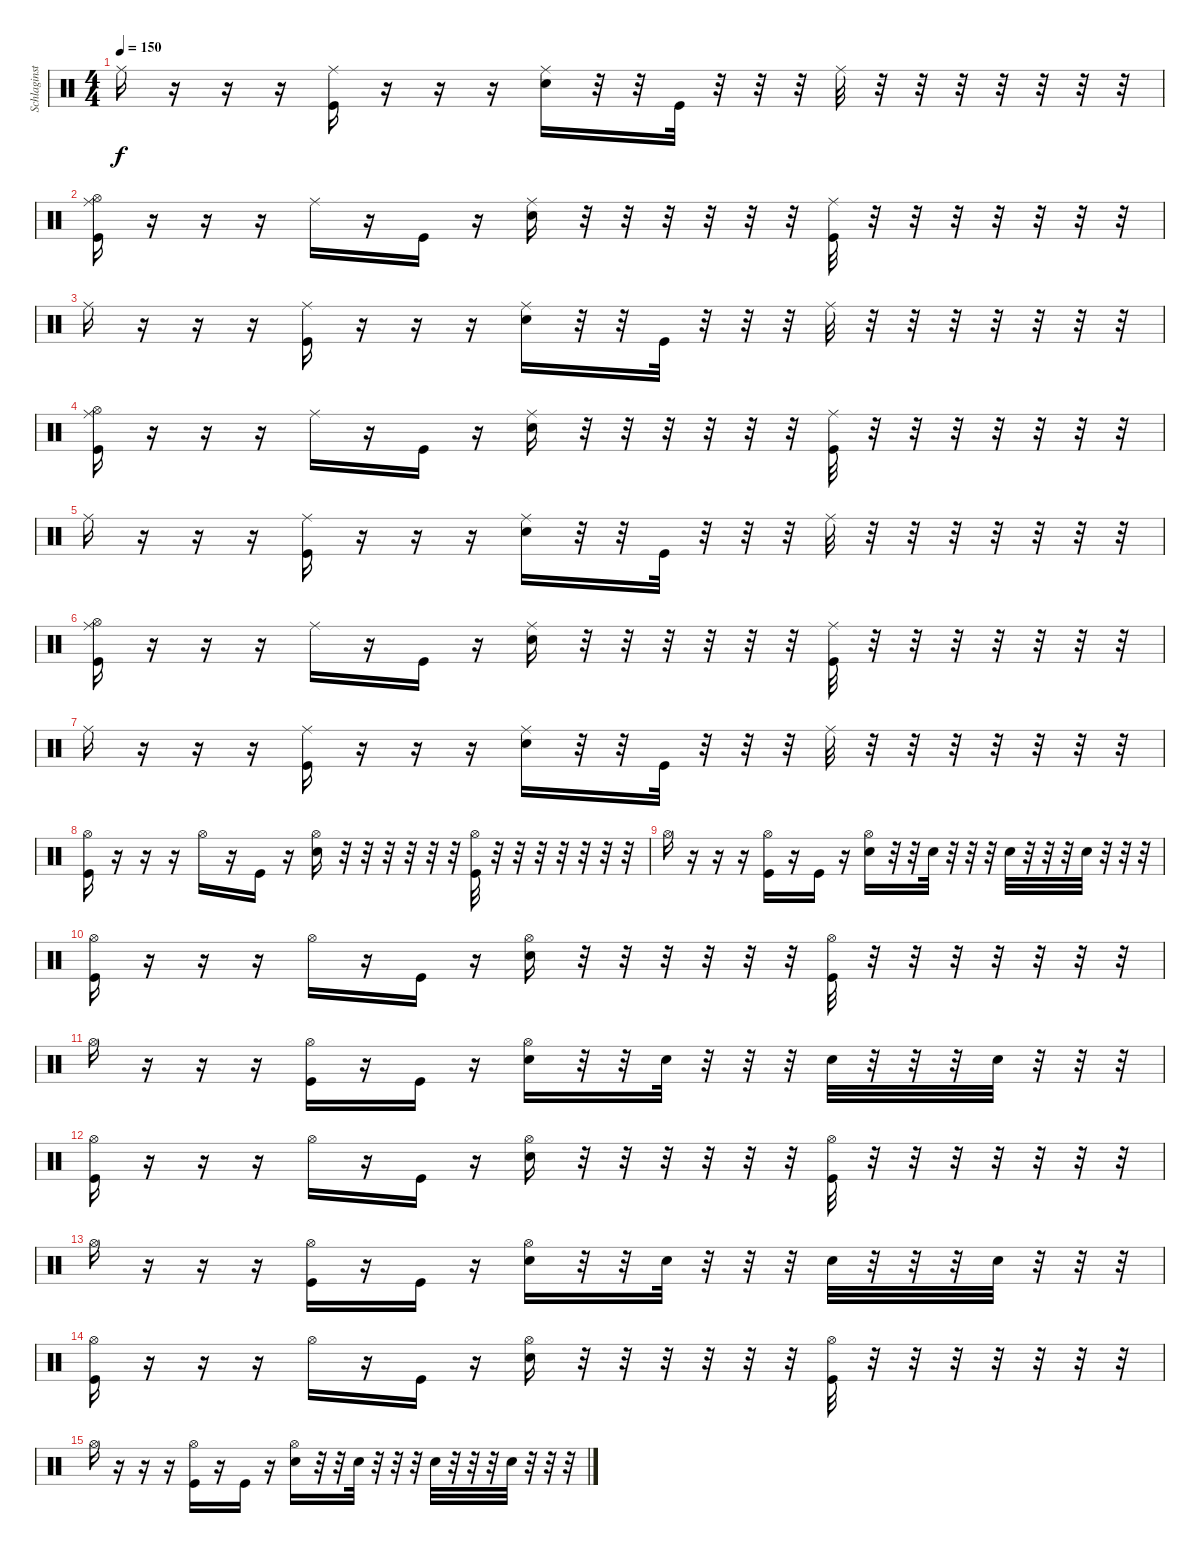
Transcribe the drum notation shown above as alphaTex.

\track ("Schlaginstrumente - Auswahl" "Schlaginst") {instrument percussion}
\staff {score}
\articulation defaults
\ts (4 4)
\tempo 150
\clef neutral
\ks c "Ride (middle)".16{dy f}
r.16 r.16 r.16 ("Kick (hit)" "Ride (middle)").16 r.16 r.16 r.16 ("Electric Snare (hit)" "Ride (middle)").16 r.32 r.32 "Kick (hit)".32 r.32 r.32 r.32 "Ride (middle)".32 r.32 r.32 r.32 r.32 r.32 r.32 r.32 |
("Kick (hit)" "Hi-Hat (open)" "Ride (middle)").16 r.16 r.16 r.16 "Ride (middle)".16 r.16 "Kick (hit)".16 r.16 ("Electric Snare (hit)" "Ride (middle)").16 r.32 r.32 r.32 r.32 r.32 r.32 ("Kick (hit)" "Ride (middle)").32 r.32 r.32 r.32 r.32 r.32 r.32 r.32 |
"Ride (middle)".16 r.16 r.16 r.16 ("Kick (hit)" "Ride (middle)").16 r.16 r.16 r.16 ("Electric Snare (hit)" "Ride (middle)").16 r.32 r.32 "Kick (hit)".32 r.32 r.32 r.32 "Ride (middle)".32 r.32 r.32 r.32 r.32 r.32 r.32 r.32 |
("Kick (hit)" "Hi-Hat (open)" "Ride (middle)").16 r.16 r.16 r.16 "Ride (middle)".16 r.16 "Kick (hit)".16 r.16 ("Electric Snare (hit)" "Ride (middle)").16 r.32 r.32 r.32 r.32 r.32 r.32 ("Kick (hit)" "Ride (middle)").32 r.32 r.32 r.32 r.32 r.32 r.32 r.32 |
"Ride (middle)".16 r.16 r.16 r.16 ("Kick (hit)" "Ride (middle)").16 r.16 r.16 r.16 ("Electric Snare (hit)" "Ride (middle)").16 r.32 r.32 "Kick (hit)".32 r.32 r.32 r.32 "Ride (middle)".32 r.32 r.32 r.32 r.32 r.32 r.32 r.32 |
("Kick (hit)" "Hi-Hat (open)" "Ride (middle)").16 r.16 r.16 r.16 "Ride (middle)".16 r.16 "Kick (hit)".16 r.16 ("Electric Snare (hit)" "Ride (middle)").16 r.32 r.32 r.32 r.32 r.32 r.32 ("Kick (hit)" "Ride (middle)").32 r.32 r.32 r.32 r.32 r.32 r.32 r.32 |
"Ride (middle)".16 r.16 r.16 r.16 ("Kick (hit)" "Ride (middle)").16 r.16 r.16 r.16 ("Electric Snare (hit)" "Ride (middle)").16 r.32 r.32 "Kick (hit)".32 r.32 r.32 r.32 "Ride (middle)".32 r.32 r.32 r.32 r.32 r.32 r.32 r.32 |
("Kick (hit)" "Hi-Hat (open)").16 r.16 r.16 r.16 "Hi-Hat (open)".16 r.16 "Kick (hit)".16 r.16 ("Electric Snare (hit)" "Hi-Hat (open)").16 r.32 r.32 r.32 r.32 r.32 r.32 ("Kick (hit)" "Hi-Hat (open)").32 r.32 r.32 r.32 r.32 r.32 r.32 r.32 |
"Hi-Hat (open)".16 r.16 r.16 r.16 ("Kick (hit)" "Hi-Hat (open)").16 r.16 "Kick (hit)".16 r.16 ("Electric Snare (hit)" "Hi-Hat (open)").16 r.32 r.32 "Electric Snare (hit)".32 r.32 r.32 r.32 "Electric Snare (hit)".32 r.32 r.32 r.32 "Electric Snare (hit)".32 r.32 r.32 r.32 |
("Kick (hit)" "Hi-Hat (open)").16 r.16 r.16 r.16 "Hi-Hat (open)".16 r.16 "Kick (hit)".16 r.16 ("Electric Snare (hit)" "Hi-Hat (open)").16 r.32 r.32 r.32 r.32 r.32 r.32 ("Kick (hit)" "Hi-Hat (open)").32 r.32 r.32 r.32 r.32 r.32 r.32 r.32 |
"Hi-Hat (open)".16 r.16 r.16 r.16 ("Kick (hit)" "Hi-Hat (open)").16 r.16 "Kick (hit)".16 r.16 ("Electric Snare (hit)" "Hi-Hat (open)").16 r.32 r.32 "Electric Snare (hit)".32 r.32 r.32 r.32 "Electric Snare (hit)".32 r.32 r.32 r.32 "Electric Snare (hit)".32 r.32 r.32 r.32 |
("Kick (hit)" "Hi-Hat (open)").16 r.16 r.16 r.16 "Hi-Hat (open)".16 r.16 "Kick (hit)".16 r.16 ("Electric Snare (hit)" "Hi-Hat (open)").16 r.32 r.32 r.32 r.32 r.32 r.32 ("Kick (hit)" "Hi-Hat (open)").32 r.32 r.32 r.32 r.32 r.32 r.32 r.32 |
"Hi-Hat (open)".16 r.16 r.16 r.16 ("Kick (hit)" "Hi-Hat (open)").16 r.16 "Kick (hit)".16 r.16 ("Electric Snare (hit)" "Hi-Hat (open)").16 r.32 r.32 "Electric Snare (hit)".32 r.32 r.32 r.32 "Electric Snare (hit)".32 r.32 r.32 r.32 "Electric Snare (hit)".32 r.32 r.32 r.32 |
("Kick (hit)" "Hi-Hat (open)").16 r.16 r.16 r.16 "Hi-Hat (open)".16 r.16 "Kick (hit)".16 r.16 ("Electric Snare (hit)" "Hi-Hat (open)").16 r.32 r.32 r.32 r.32 r.32 r.32 ("Kick (hit)" "Hi-Hat (open)").32 r.32 r.32 r.32 r.32 r.32 r.32 r.32 |
"Hi-Hat (open)".16 r.16 r.16 r.16 ("Kick (hit)" "Hi-Hat (open)").16 r.16 "Kick (hit)".16 r.16 ("Electric Snare (hit)" "Hi-Hat (open)").16 r.32 r.32 "Electric Snare (hit)".32 r.32 r.32 r.32 "Electric Snare (hit)".32 r.32 r.32 r.32 "Electric Snare (hit)".32 r.32 r.32 r.32
